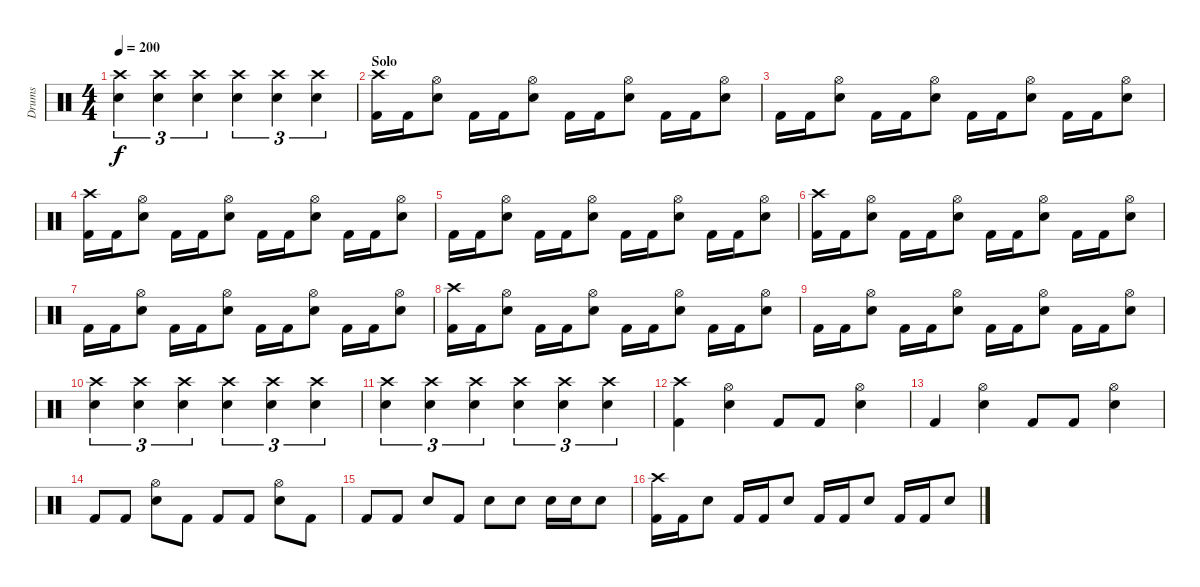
\track ("Drums" "Drums") {instrument percussion}
\staff {score}
\articulation defaults
\ts (4 4)
\tempo 200
\clef neutral
\ks c
("Crash high (hit)" "Snare (hit) 2").4{tu (3 2) dy f} ("Crash high (hit)" "Snare (hit) 2").4{tu (3 2)} ("Crash high (hit)" "Snare (hit) 2").4{tu (3 2)} ("Crash high (hit)" "Snare (hit) 2").4{tu (3 2)} ("Crash high (hit)" "Snare (hit) 2").4{tu (3 2)} ("Crash high (hit)" "Snare (hit) 2").4{tu (3 2)} |
\section ("" "Solo")
("Crash high (hit)" "Kick (hit) 2").16 "Kick (hit) 2".16 ("Hi-Hat (open)" "Snare (hit) 2").8 "Kick (hit) 2".16 "Kick (hit) 2".16 ("Hi-Hat (open)" "Snare (hit) 2").8 "Kick (hit) 2".16 "Kick (hit) 2".16 ("Hi-Hat (open)" "Snare (hit) 2").8 "Kick (hit) 2".16 "Kick (hit) 2".16 ("Hi-Hat (open)" "Snare (hit) 2").8 |
"Kick (hit) 2".16 "Kick (hit) 2".16 ("Hi-Hat (open)" "Snare (hit) 2").8 "Kick (hit) 2".16 "Kick (hit) 2".16 ("Hi-Hat (open)" "Snare (hit) 2").8 "Kick (hit) 2".16 "Kick (hit) 2".16 ("Hi-Hat (open)" "Snare (hit) 2").8 "Kick (hit) 2".16 "Kick (hit) 2".16 ("Hi-Hat (open)" "Snare (hit) 2").8 |
("Crash high (hit)" "Kick (hit) 2").16 "Kick (hit) 2".16 ("Hi-Hat (open)" "Snare (hit) 2").8 "Kick (hit) 2".16 "Kick (hit) 2".16 ("Hi-Hat (open)" "Snare (hit) 2").8 "Kick (hit) 2".16 "Kick (hit) 2".16 ("Hi-Hat (open)" "Snare (hit) 2").8 "Kick (hit) 2".16 "Kick (hit) 2".16 ("Hi-Hat (open)" "Snare (hit) 2").8 |
"Kick (hit) 2".16 "Kick (hit) 2".16 ("Hi-Hat (open)" "Snare (hit) 2").8 "Kick (hit) 2".16 "Kick (hit) 2".16 ("Hi-Hat (open)" "Snare (hit) 2").8 "Kick (hit) 2".16 "Kick (hit) 2".16 ("Hi-Hat (open)" "Snare (hit) 2").8 "Kick (hit) 2".16 "Kick (hit) 2".16 ("Hi-Hat (open)" "Snare (hit) 2").8 |
("Crash high (hit)" "Kick (hit) 2").16 "Kick (hit) 2".16 ("Hi-Hat (open)" "Snare (hit) 2").8 "Kick (hit) 2".16 "Kick (hit) 2".16 ("Hi-Hat (open)" "Snare (hit) 2").8 "Kick (hit) 2".16 "Kick (hit) 2".16 ("Hi-Hat (open)" "Snare (hit) 2").8 "Kick (hit) 2".16 "Kick (hit) 2".16 ("Hi-Hat (open)" "Snare (hit) 2").8 |
"Kick (hit) 2".16 "Kick (hit) 2".16 ("Hi-Hat (open)" "Snare (hit) 2").8 "Kick (hit) 2".16 "Kick (hit) 2".16 ("Hi-Hat (open)" "Snare (hit) 2").8 "Kick (hit) 2".16 "Kick (hit) 2".16 ("Hi-Hat (open)" "Snare (hit) 2").8 "Kick (hit) 2".16 "Kick (hit) 2".16 ("Hi-Hat (open)" "Snare (hit) 2").8 |
("Crash high (hit)" "Kick (hit) 2").16 "Kick (hit) 2".16 ("Hi-Hat (open)" "Snare (hit) 2").8 "Kick (hit) 2".16 "Kick (hit) 2".16 ("Hi-Hat (open)" "Snare (hit) 2").8 "Kick (hit) 2".16 "Kick (hit) 2".16 ("Hi-Hat (open)" "Snare (hit) 2").8 "Kick (hit) 2".16 "Kick (hit) 2".16 ("Hi-Hat (open)" "Snare (hit) 2").8 |
"Kick (hit) 2".16 "Kick (hit) 2".16 ("Hi-Hat (open)" "Snare (hit) 2").8 "Kick (hit) 2".16 "Kick (hit) 2".16 ("Hi-Hat (open)" "Snare (hit) 2").8 "Kick (hit) 2".16 "Kick (hit) 2".16 ("Hi-Hat (open)" "Snare (hit) 2").8 "Kick (hit) 2".16 "Kick (hit) 2".16 ("Hi-Hat (open)" "Snare (hit) 2").8 |
("Crash high (hit)" "Snare (hit) 2").4{tu (3 2)} ("Crash high (hit)" "Snare (hit) 2").4{tu (3 2)} ("Crash high (hit)" "Snare (hit) 2").4{tu (3 2)} ("Crash high (hit)" "Snare (hit) 2").4{tu (3 2)} ("Crash high (hit)" "Snare (hit) 2").4{tu (3 2)} ("Crash high (hit)" "Snare (hit) 2").4{tu (3 2)} |
("Crash high (hit)" "Snare (hit) 2").4{tu (3 2)} ("Crash high (hit)" "Snare (hit) 2").4{tu (3 2)} ("Crash high (hit)" "Snare (hit) 2").4{tu (3 2)} ("Crash high (hit)" "Snare (hit) 2").4{tu (3 2)} ("Crash high (hit)" "Snare (hit) 2").4{tu (3 2)} ("Crash high (hit)" "Snare (hit) 2").4{tu (3 2)} |
("Crash high (hit)" "Kick (hit) 2").4 ("Hi-Hat (open)" "Snare (hit) 2").4 "Kick (hit) 2".8 "Kick (hit) 2".8 ("Hi-Hat (open)" "Snare (hit) 2").4 |
"Kick (hit) 2".4 ("Hi-Hat (open)" "Snare (hit) 2").4 "Kick (hit) 2".8 "Kick (hit) 2".8 ("Hi-Hat (open)" "Snare (hit) 2").4 |
"Kick (hit) 2".8 "Kick (hit) 2".8 ("Hi-Hat (open)" "Snare (hit) 2").8 "Kick (hit) 2".8 "Kick (hit) 2".8 "Kick (hit) 2".8 ("Hi-Hat (open)" "Snare (hit) 2").8 "Kick (hit) 2".8 |
"Kick (hit) 2".8 "Kick (hit) 2".8 "Snare (hit) 2".8 "Kick (hit) 2".8 "Snare (hit) 2".8 "Snare (hit) 2".8 "Snare (hit) 2".16 "Snare (hit) 2".16 "Snare (hit) 2".8 |
("Crash high (hit)" "Kick (hit) 2").16 "Kick (hit) 2".16 "Snare (hit) 2".8 "Kick (hit) 2".16 "Kick (hit) 2".16 "Snare (hit) 2".8 "Kick (hit) 2".16 "Kick (hit) 2".16 "Snare (hit) 2".8 "Kick (hit) 2".16 "Kick (hit) 2".16 "Snare (hit) 2".8
